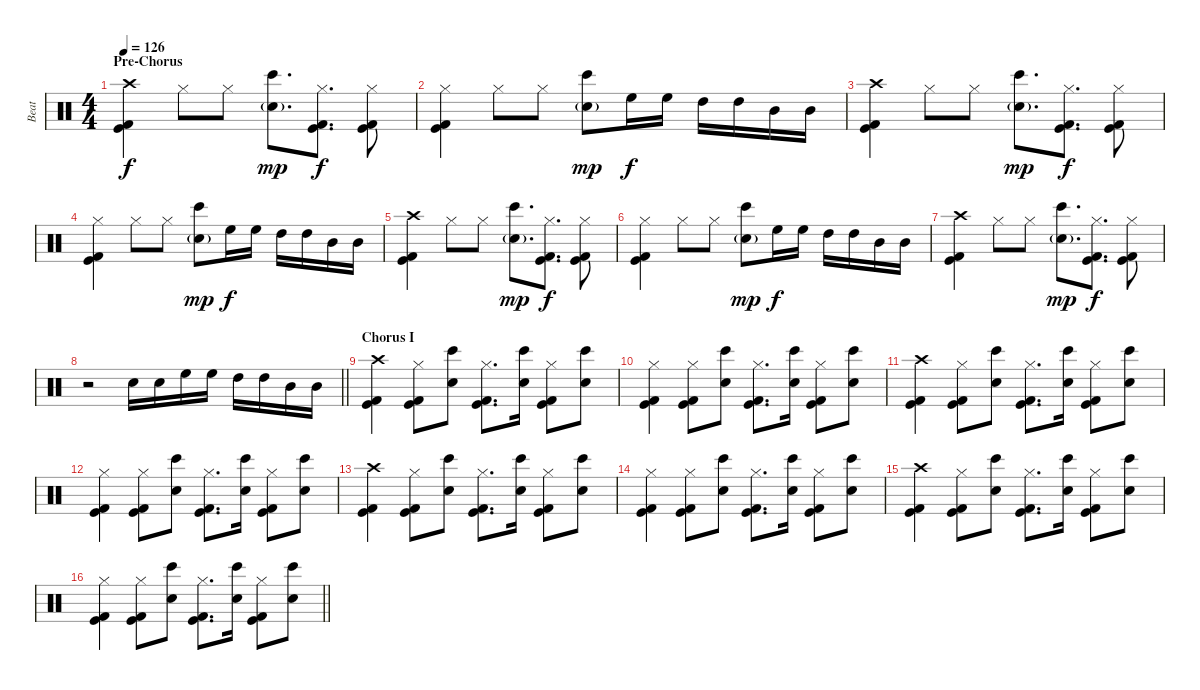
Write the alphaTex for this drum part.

\track ("Beat" "Beat") {instrument percussion}
\staff {score}
\articulation defaults
\ts (4 4)
\section ("" "Pre-Chorus")
\tempo 126
\clef neutral
\ks c
("Crash high (hit)" "Kick (hit)" "Kick (hit) 2").4{dy f} "Hi-Hat (closed)".8 "Hi-Hat (closed)".8 ("Bongo High (hit)" "Snare (hit) 2"{g}).8{d dy mp} ("Hi-Hat (closed)" "Kick (hit)" "Kick (hit) 2").8{d dy f} ("Hi-Hat (closed)" "Kick (hit)" "Kick (hit) 2").8 |
("Hi-Hat (closed)" "Kick (hit)" "Kick (hit) 2").4 "Hi-Hat (closed)".8 "Hi-Hat (closed)".8 ("Bongo High (hit)" "Snare (hit) 2"{g}).8{dy mp} "High Floor Tom (hit)".16{dy f} "High Floor Tom (hit)".16 "High Tom (hit)".16 "High Tom (hit)".16 "Mid Tom (hit)".16 "Mid Tom (hit)".16 |
("Crash high (hit)" "Kick (hit)" "Kick (hit) 2").4 "Hi-Hat (closed)".8 "Hi-Hat (closed)".8 ("Bongo High (hit)" "Snare (hit) 2"{g}).8{d dy mp} ("Hi-Hat (closed)" "Kick (hit)" "Kick (hit) 2").8{d dy f} ("Hi-Hat (closed)" "Kick (hit)" "Kick (hit) 2").8 |
("Hi-Hat (closed)" "Kick (hit)" "Kick (hit) 2").4 "Hi-Hat (closed)".8 "Hi-Hat (closed)".8 ("Bongo High (hit)" "Snare (hit) 2"{g}).8{dy mp} "High Floor Tom (hit)".16{dy f} "High Floor Tom (hit)".16 "High Tom (hit)".16 "High Tom (hit)".16 "Mid Tom (hit)".16 "Mid Tom (hit)".16 |
("Crash high (hit)" "Kick (hit)" "Kick (hit) 2").4 "Hi-Hat (closed)".8 "Hi-Hat (closed)".8 ("Bongo High (hit)" "Snare (hit) 2"{g}).8{d dy mp} ("Hi-Hat (closed)" "Kick (hit)" "Kick (hit) 2").8{d dy f} ("Hi-Hat (closed)" "Kick (hit)" "Kick (hit) 2").8 |
("Hi-Hat (closed)" "Kick (hit)" "Kick (hit) 2").4 "Hi-Hat (closed)".8 "Hi-Hat (closed)".8 ("Bongo High (hit)" "Snare (hit) 2"{g}).8{dy mp} "High Floor Tom (hit)".16{dy f} "High Floor Tom (hit)".16 "High Tom (hit)".16 "High Tom (hit)".16 "Mid Tom (hit)".16 "Mid Tom (hit)".16 |
("Crash high (hit)" "Kick (hit)" "Kick (hit) 2").4 "Hi-Hat (closed)".8 "Hi-Hat (closed)".8 ("Bongo High (hit)" "Snare (hit) 2"{g}).8{d dy mp} ("Hi-Hat (closed)" "Kick (hit)" "Kick (hit) 2").8{d dy f} ("Hi-Hat (closed)" "Kick (hit)" "Kick (hit) 2").8 |
\barLineRight lightlight
r.2 "Snare (hit) 2".16 "Snare (hit) 2".16 "High Floor Tom (hit)".16 "High Floor Tom (hit)".16 "High Tom (hit)".16 "High Tom (hit)".16 "Mid Tom (hit)".16 "Mid Tom (hit)".16 |
\section ("" "Chorus I")
("Crash high (hit)" "Kick (hit)" "Kick (hit) 2").4 ("Hi-Hat (closed)" "Kick (hit)" "Kick (hit) 2").8 ("Bongo High (hit)" "Snare (hit) 2").8 ("Hi-Hat (closed)" "Kick (hit)" "Kick (hit) 2").8{d} ("Bongo High (hit)" "Snare (hit) 2").16 ("Hi-Hat (closed)" "Kick (hit)" "Kick (hit) 2").8 ("Bongo High (hit)" "Snare (hit) 2").8 |
("Hi-Hat (closed)" "Kick (hit)" "Kick (hit) 2").4 ("Hi-Hat (closed)" "Kick (hit)" "Kick (hit) 2").8 ("Bongo High (hit)" "Snare (hit) 2").8 ("Hi-Hat (closed)" "Kick (hit)" "Kick (hit) 2").8{d} ("Bongo High (hit)" "Snare (hit) 2").16 ("Hi-Hat (closed)" "Kick (hit)" "Kick (hit) 2").8 ("Bongo High (hit)" "Snare (hit) 2").8 |
("Crash high (hit)" "Kick (hit)" "Kick (hit) 2").4 ("Hi-Hat (closed)" "Kick (hit)" "Kick (hit) 2").8 ("Bongo High (hit)" "Snare (hit) 2").8 ("Hi-Hat (closed)" "Kick (hit)" "Kick (hit) 2").8{d} ("Bongo High (hit)" "Snare (hit) 2").16 ("Hi-Hat (closed)" "Kick (hit)" "Kick (hit) 2").8 ("Bongo High (hit)" "Snare (hit) 2").8 |
("Hi-Hat (closed)" "Kick (hit)" "Kick (hit) 2").4 ("Hi-Hat (closed)" "Kick (hit)" "Kick (hit) 2").8 ("Bongo High (hit)" "Snare (hit) 2").8 ("Hi-Hat (closed)" "Kick (hit)" "Kick (hit) 2").8{d} ("Bongo High (hit)" "Snare (hit) 2").16 ("Hi-Hat (closed)" "Kick (hit)" "Kick (hit) 2").8 ("Bongo High (hit)" "Snare (hit) 2").8 |
("Crash high (hit)" "Kick (hit)" "Kick (hit) 2").4 ("Hi-Hat (closed)" "Kick (hit)" "Kick (hit) 2").8 ("Bongo High (hit)" "Snare (hit) 2").8 ("Hi-Hat (closed)" "Kick (hit)" "Kick (hit) 2").8{d} ("Bongo High (hit)" "Snare (hit) 2").16 ("Hi-Hat (closed)" "Kick (hit)" "Kick (hit) 2").8 ("Bongo High (hit)" "Snare (hit) 2").8 |
("Hi-Hat (closed)" "Kick (hit)" "Kick (hit) 2").4 ("Hi-Hat (closed)" "Kick (hit)" "Kick (hit) 2").8 ("Bongo High (hit)" "Snare (hit) 2").8 ("Hi-Hat (closed)" "Kick (hit)" "Kick (hit) 2").8{d} ("Bongo High (hit)" "Snare (hit) 2").16 ("Hi-Hat (closed)" "Kick (hit)" "Kick (hit) 2").8 ("Bongo High (hit)" "Snare (hit) 2").8 |
("Crash high (hit)" "Kick (hit)" "Kick (hit) 2").4 ("Hi-Hat (closed)" "Kick (hit)" "Kick (hit) 2").8 ("Bongo High (hit)" "Snare (hit) 2").8 ("Hi-Hat (closed)" "Kick (hit)" "Kick (hit) 2").8{d} ("Bongo High (hit)" "Snare (hit) 2").16 ("Hi-Hat (closed)" "Kick (hit)" "Kick (hit) 2").8 ("Bongo High (hit)" "Snare (hit) 2").8 |
\barLineRight lightlight
("Hi-Hat (closed)" "Kick (hit)" "Kick (hit) 2").4 ("Hi-Hat (closed)" "Kick (hit)" "Kick (hit) 2").8 ("Bongo High (hit)" "Snare (hit) 2").8 ("Hi-Hat (closed)" "Kick (hit)" "Kick (hit) 2").8{d} ("Bongo High (hit)" "Snare (hit) 2").16 ("Hi-Hat (closed)" "Kick (hit)" "Kick (hit) 2").8 ("Bongo High (hit)" "Snare (hit) 2").8
